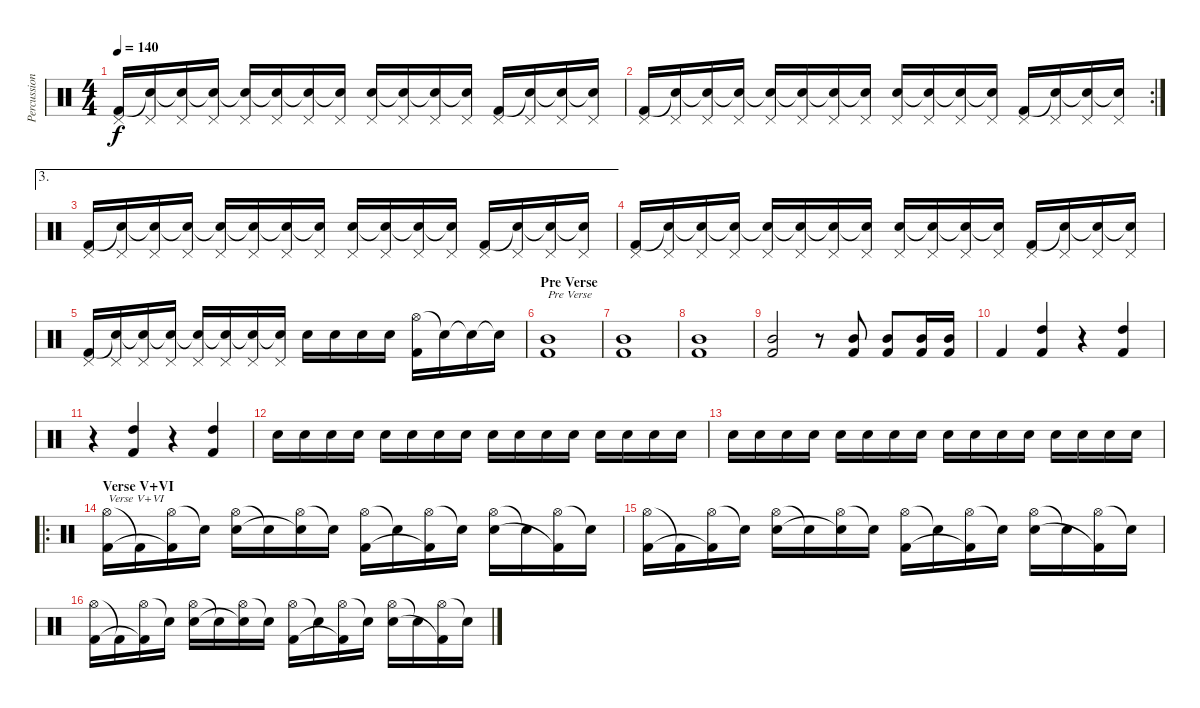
\track ("Percussion" "Percussion") {instrument percussion}
\staff {score}
\articulation defaults
\ts (4 4)
\tempo 140
\clef neutral
\ks c
("Pedal Hi-Hat (hit)" "Kick (hit) 2").16{dy f} ("Pedal Hi-Hat (hit)" "Snare (hit)"{t}).16 ("Pedal Hi-Hat (hit)" "Snare (hit)"{t}).16 ("Pedal Hi-Hat (hit)" "Snare (hit)"{t}).16 ("Pedal Hi-Hat (hit)" "Snare (hit)"{t}).16 ("Pedal Hi-Hat (hit)" "Snare (hit)"{t}).16 ("Pedal Hi-Hat (hit)" "Snare (hit)"{t}).16 ("Pedal Hi-Hat (hit)" "Snare (hit)"{t}).16 ("Pedal Hi-Hat (hit)" "Electric Snare (hit)").16 ("Pedal Hi-Hat (hit)" "Snare (hit)"{t}).16 ("Pedal Hi-Hat (hit)" "Snare (hit)"{t}).16 ("Pedal Hi-Hat (hit)" "Snare (hit)"{t}).16 ("Pedal Hi-Hat (hit)" "Kick (hit) 2").16 ("Pedal Hi-Hat (hit)" "Snare (hit)"{t}).16 ("Pedal Hi-Hat (hit)" "Snare (hit)"{t}).16 ("Pedal Hi-Hat (hit)" "Snare (hit)"{t}).16 |
\rc 2
("Pedal Hi-Hat (hit)" "Kick (hit) 2").16 ("Pedal Hi-Hat (hit)" "Snare (hit)"{t}).16 ("Pedal Hi-Hat (hit)" "Snare (hit)"{t}).16 ("Pedal Hi-Hat (hit)" "Snare (hit)"{t}).16 ("Pedal Hi-Hat (hit)" "Snare (hit)"{t}).16 ("Pedal Hi-Hat (hit)" "Snare (hit)"{t}).16 ("Pedal Hi-Hat (hit)" "Snare (hit)"{t}).16 ("Pedal Hi-Hat (hit)" "Snare (hit)"{t}).16 ("Pedal Hi-Hat (hit)" "Electric Snare (hit)").16 ("Pedal Hi-Hat (hit)" "Snare (hit)"{t}).16 ("Pedal Hi-Hat (hit)" "Snare (hit)"{t}).16 ("Pedal Hi-Hat (hit)" "Snare (hit)"{t}).16 ("Pedal Hi-Hat (hit)" "Kick (hit) 2").16 ("Pedal Hi-Hat (hit)" "Snare (hit)"{t}).16 ("Pedal Hi-Hat (hit)" "Snare (hit)"{t}).16 ("Pedal Hi-Hat (hit)" "Snare (hit)"{t}).16 |
\ae 3
("Pedal Hi-Hat (hit)" "Kick (hit) 2").16 ("Pedal Hi-Hat (hit)" "Snare (hit)"{t}).16 ("Pedal Hi-Hat (hit)" "Snare (hit)"{t}).16 ("Pedal Hi-Hat (hit)" "Snare (hit)"{t}).16 ("Pedal Hi-Hat (hit)" "Snare (hit)"{t}).16 ("Pedal Hi-Hat (hit)" "Snare (hit)"{t}).16 ("Pedal Hi-Hat (hit)" "Snare (hit)"{t}).16 ("Pedal Hi-Hat (hit)" "Snare (hit)"{t}).16 ("Pedal Hi-Hat (hit)" "Electric Snare (hit)").16 ("Pedal Hi-Hat (hit)" "Snare (hit)"{t}).16 ("Pedal Hi-Hat (hit)" "Snare (hit)"{t}).16 ("Pedal Hi-Hat (hit)" "Snare (hit)"{t}).16 ("Pedal Hi-Hat (hit)" "Kick (hit) 2").16 ("Pedal Hi-Hat (hit)" "Snare (hit)"{t}).16 ("Pedal Hi-Hat (hit)" "Snare (hit)"{t}).16 ("Pedal Hi-Hat (hit)" "Snare (hit)"{t}).16 |
("Pedal Hi-Hat (hit)" "Kick (hit) 2").16 ("Pedal Hi-Hat (hit)" "Snare (hit)"{t}).16 ("Pedal Hi-Hat (hit)" "Snare (hit)"{t}).16 ("Pedal Hi-Hat (hit)" "Snare (hit)"{t}).16 ("Pedal Hi-Hat (hit)" "Snare (hit)"{t}).16 ("Pedal Hi-Hat (hit)" "Snare (hit)"{t}).16 ("Pedal Hi-Hat (hit)" "Snare (hit)"{t}).16 ("Pedal Hi-Hat (hit)" "Snare (hit)"{t}).16 ("Pedal Hi-Hat (hit)" "Electric Snare (hit)").16 ("Pedal Hi-Hat (hit)" "Snare (hit)"{t}).16 ("Pedal Hi-Hat (hit)" "Snare (hit)"{t}).16 ("Pedal Hi-Hat (hit)" "Snare (hit)"{t}).16 ("Pedal Hi-Hat (hit)" "Kick (hit) 2").16 ("Pedal Hi-Hat (hit)" "Snare (hit)"{t}).16 ("Pedal Hi-Hat (hit)" "Snare (hit)"{t}).16 ("Pedal Hi-Hat (hit)" "Snare (hit)"{t}).16 |
("Pedal Hi-Hat (hit)" "Kick (hit) 2").16 ("Pedal Hi-Hat (hit)" "Snare (hit)"{t}).16 ("Pedal Hi-Hat (hit)" "Snare (hit)"{t}).16 ("Pedal Hi-Hat (hit)" "Snare (hit)"{t}).16 ("Pedal Hi-Hat (hit)" "Snare (hit)"{t}).16 ("Pedal Hi-Hat (hit)" "Snare (hit)"{t}).16 ("Pedal Hi-Hat (hit)" "Snare (hit)"{t}).16 ("Pedal Hi-Hat (hit)" "Snare (hit)"{t}).16 "Electric Snare (hit)".16 "Electric Snare (hit)".16 "Electric Snare (hit)".16 "Electric Snare (hit)".16 ("Hi-Hat (open)" "Kick (hit) 2").16 "Snare (hit)"{t}.16 "Snare (hit)"{t}.16 "Snare (hit)"{t}.16 |
\section ("" "Pre Verse")
("Mid Tom (hit)" "Kick (hit) 2").1{txt "Pre Verse"} |
("Mid Tom (hit)" "Kick (hit) 2").1 |
("Mid Tom (hit)" "Kick (hit) 2").1 |
("Mid Tom (hit)" "Kick (hit) 2").2 r.8 ("Mid Tom (hit)" "Kick (hit) 2").8 ("Mid Tom (hit)" "Kick (hit) 2").8 ("Mid Tom (hit)" "Kick (hit) 2").16 ("Mid Tom (hit)" "Kick (hit) 2").16 |
"Kick (hit) 2".4 ("High Tom (hit)" "Kick (hit) 2").4 r.4 ("High Tom (hit)" "Kick (hit) 2").4 |
r.4 ("High Tom (hit)" "Kick (hit) 2").4 r.4 ("High Tom (hit)" "Kick (hit) 2").4 |
"Electric Snare (hit)".16{volume 4} "Electric Snare (hit)".16{volume 14} "Electric Snare (hit)".16 "Electric Snare (hit)".16 "Electric Snare (hit)".16 "Electric Snare (hit)".16 "Electric Snare (hit)".16 "Electric Snare (hit)".16 "Electric Snare (hit)".16 "Electric Snare (hit)".16 "Electric Snare (hit)".16 "Electric Snare (hit)".16 "Electric Snare (hit)".16 "Electric Snare (hit)".16 "Electric Snare (hit)".16 "Electric Snare (hit)".16 |
"Electric Snare (hit)".16 "Electric Snare (hit)".16 "Electric Snare (hit)".16 "Electric Snare (hit)".16 "Electric Snare (hit)".16 "Electric Snare (hit)".16 "Electric Snare (hit)".16 "Electric Snare (hit)".16 "Electric Snare (hit)".16 "Electric Snare (hit)".16 "Electric Snare (hit)".16 "Electric Snare (hit)".16 "Electric Snare (hit)".16 "Electric Snare (hit)".16 "Electric Snare (hit)".16 "Electric Snare (hit)".16 |
\ro
\section ("" "Verse V+VI")
("Hi-Hat (open)" "Kick (hit) 2").16{txt "Verse V+VI"} "Kick (hit) 2"{t}.16 ("Hi-Hat (open)" "Kick (hit) 2"{t}).16 "Snare (hit)"{t}.16 ("Hi-Hat (open)" "Electric Snare (hit)").16 "Snare (hit)"{t}.16 ("Hi-Hat (open)" "Snare (hit)"{t}).16 "Snare (hit)"{t}.16 ("Hi-Hat (open)" "Kick (hit) 2").16 "Snare (hit)"{t}.16 ("Hi-Hat (open)" "Kick (hit) 2"{t}).16 "Snare (hit)"{t}.16 ("Hi-Hat (open)" "Electric Snare (hit)").16 "Snare (hit)"{t}.16 ("Hi-Hat (open)" "Kick (hit) 2"{t}).16 "Snare (hit)"{t}.16 |
("Hi-Hat (open)" "Kick (hit) 2").16 "Kick (hit) 2"{t}.16 ("Hi-Hat (open)" "Kick (hit) 2"{t}).16 "Snare (hit)"{t}.16 ("Hi-Hat (open)" "Electric Snare (hit)").16 "Snare (hit)"{t}.16 ("Hi-Hat (open)" "Snare (hit)"{t}).16 "Snare (hit)"{t}.16 ("Hi-Hat (open)" "Kick (hit) 2").16 "Snare (hit)"{t}.16 ("Hi-Hat (open)" "Kick (hit) 2"{t}).16 "Snare (hit)"{t}.16 ("Hi-Hat (open)" "Electric Snare (hit)").16 "Snare (hit)"{t}.16 ("Hi-Hat (open)" "Kick (hit) 2"{t}).16 "Snare (hit)"{t}.16 |
("Hi-Hat (open)" "Kick (hit) 2").16 "Kick (hit) 2"{t}.16 ("Hi-Hat (open)" "Kick (hit) 2"{t}).16 "Snare (hit)"{t}.16 ("Hi-Hat (open)" "Electric Snare (hit)").16 "Snare (hit)"{t}.16 ("Hi-Hat (open)" "Snare (hit)"{t}).16 "Snare (hit)"{t}.16 ("Hi-Hat (open)" "Kick (hit) 2").16 "Snare (hit)"{t}.16 ("Hi-Hat (open)" "Kick (hit) 2"{t}).16 "Snare (hit)"{t}.16 ("Hi-Hat (open)" "Electric Snare (hit)").16 "Snare (hit)"{t}.16 ("Hi-Hat (open)" "Kick (hit) 2"{t}).16 "Snare (hit)"{t}.16
